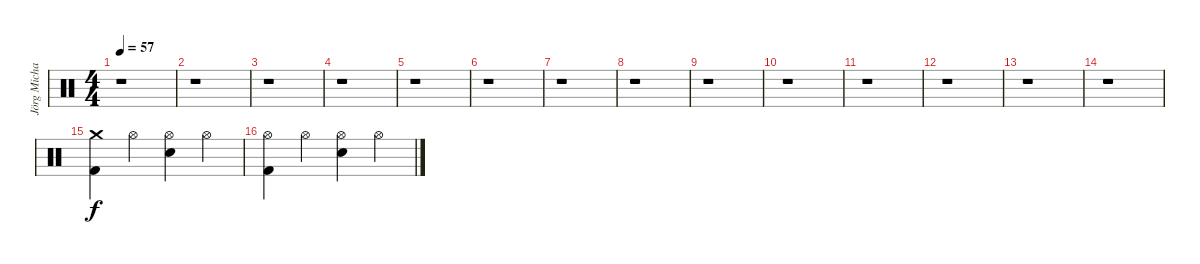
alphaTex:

\track ("Jörg Michael" "Jörg Micha") {instrument percussion}
\staff {score}
\articulation defaults
\ts (4 4)
\tempo 57
\clef neutral
\ks c
r.1{dy f} |
r.1 |
r.1 |
r.1 |
r.1 |
r.1 |
r.1 |
r.1 |
r.1 |
r.1 |
r.1 |
r.1 |
r.1 |
r.1 |
("Kick (hit) 2" "Crash medium (hit)").4 "Hi-Hat (open)".4 ("Snare (hit) 2" "Hi-Hat (open)").4 "Hi-Hat (open)".4 |
("Kick (hit) 2" "Hi-Hat (open)").4 "Hi-Hat (open)".4 ("Snare (hit) 2" "Hi-Hat (open)").4 "Hi-Hat (open)".4
